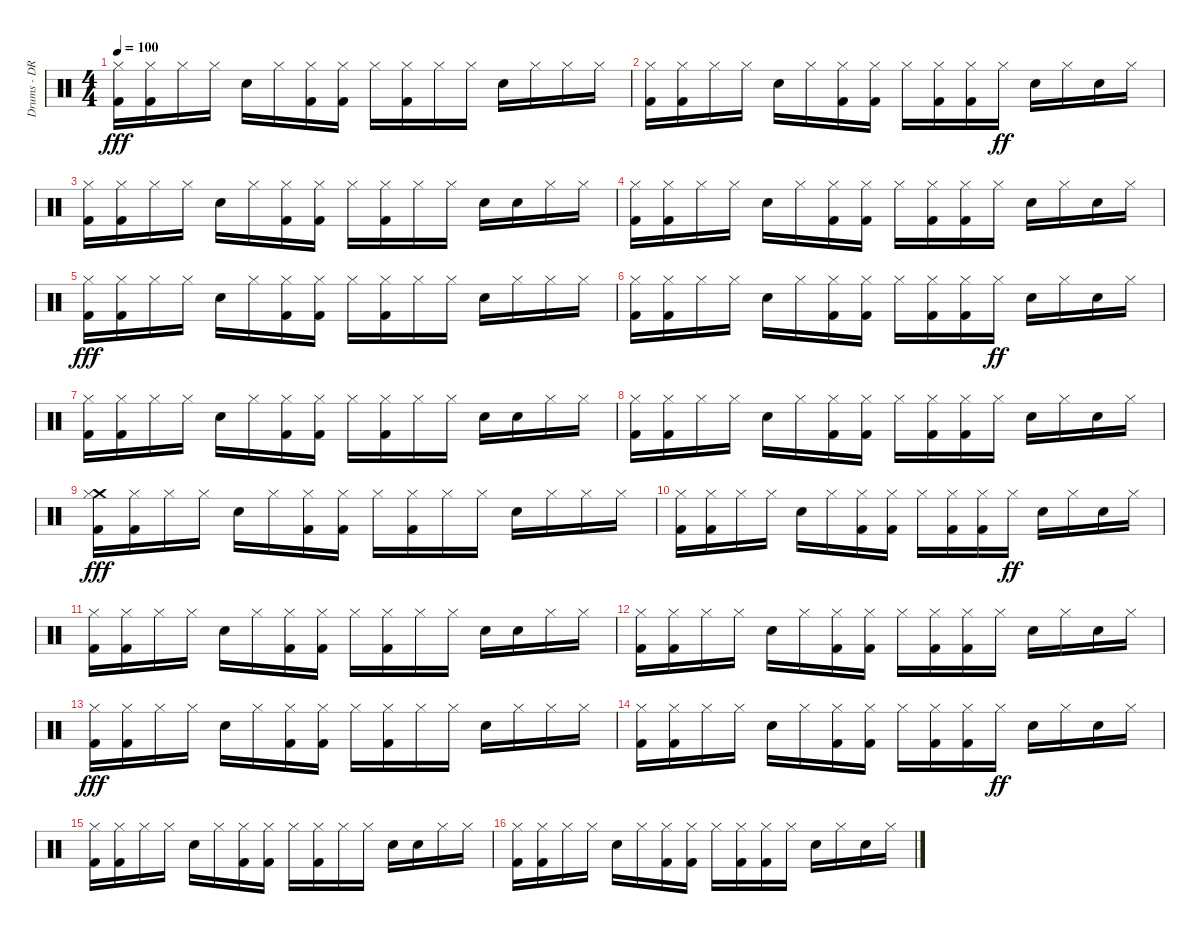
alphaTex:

\track ("Drums - DR-660 Standard" "Drums - DR") {instrument percussion}
\staff {score}
\articulation defaults
\ts (4 4)
\tempo 100
\clef neutral
\ks c
("Kick (hit) 2" "Hi-Hat (closed)").16{dy fff} ("Kick (hit) 2" "Hi-Hat (closed)").16 "Hi-Hat (closed)".16 "Hi-Hat (closed)".16 "Snare (hit) 2".16 "Hi-Hat (closed)".16 ("Kick (hit) 2" "Hi-Hat (closed)").16 ("Kick (hit) 2" "Hi-Hat (closed)").16 "Hi-Hat (closed)".16 ("Kick (hit) 2" "Hi-Hat (closed)").16 "Hi-Hat (closed)".16 "Hi-Hat (closed)".16 "Snare (hit) 2".16 "Hi-Hat (closed)".16 "Hi-Hat (closed)".16 "Hi-Hat (closed)".16 |
("Kick (hit) 2" "Hi-Hat (closed)").16 ("Kick (hit) 2" "Hi-Hat (closed)").16 "Hi-Hat (closed)".16 "Hi-Hat (closed)".16 "Snare (hit) 2".16 "Hi-Hat (closed)".16 ("Kick (hit) 2" "Hi-Hat (closed)").16 ("Kick (hit) 2" "Hi-Hat (closed)").16 "Hi-Hat (closed)".16 ("Kick (hit) 2" "Hi-Hat (closed)").16 ("Kick (hit) 2" "Hi-Hat (closed)").16 "Hi-Hat (closed)".16{dy ff} "Snare (hit) 2".16 "Hi-Hat (closed)".16 "Snare (hit) 2".16 "Hi-Hat (closed)".16 |
("Kick (hit) 2" "Hi-Hat (closed)").16 ("Kick (hit) 2" "Hi-Hat (closed)").16 "Hi-Hat (closed)".16 "Hi-Hat (closed)".16 "Snare (hit) 2".16 "Hi-Hat (closed)".16 ("Kick (hit) 2" "Hi-Hat (closed)").16 ("Kick (hit) 2" "Hi-Hat (closed)").16 "Hi-Hat (closed)".16 ("Kick (hit) 2" "Hi-Hat (closed)").16 "Hi-Hat (closed)".16 "Hi-Hat (closed)".16 "Snare (hit) 2".16 "Snare (hit) 2".16 "Hi-Hat (closed)".16 "Hi-Hat (closed)".16 |
("Kick (hit) 2" "Hi-Hat (closed)").16 ("Kick (hit) 2" "Hi-Hat (closed)").16 "Hi-Hat (closed)".16 "Hi-Hat (closed)".16 "Snare (hit) 2".16 "Hi-Hat (closed)".16 ("Kick (hit) 2" "Hi-Hat (closed)").16 ("Kick (hit) 2" "Hi-Hat (closed)").16 "Hi-Hat (closed)".16 ("Kick (hit) 2" "Hi-Hat (closed)").16 ("Kick (hit) 2" "Hi-Hat (closed)").16 "Hi-Hat (closed)".16 "Snare (hit) 2".16 "Hi-Hat (closed)".16 "Snare (hit) 2".16 "Hi-Hat (closed)".16 |
("Hi-Hat (closed)" "Kick (hit) 2").16{dy fff} ("Hi-Hat (closed)" "Kick (hit) 2").16 "Hi-Hat (closed)".16 "Hi-Hat (closed)".16 "Snare (hit) 2".16 "Hi-Hat (closed)".16 ("Hi-Hat (closed)" "Kick (hit) 2").16 ("Hi-Hat (closed)" "Kick (hit) 2").16 "Hi-Hat (closed)".16 ("Hi-Hat (closed)" "Kick (hit) 2").16 "Hi-Hat (closed)".16 "Hi-Hat (closed)".16 "Snare (hit) 2".16 "Hi-Hat (closed)".16 "Hi-Hat (closed)".16 "Hi-Hat (closed)".16 |
("Hi-Hat (closed)" "Kick (hit) 2").16 ("Hi-Hat (closed)" "Kick (hit) 2").16 "Hi-Hat (closed)".16 "Hi-Hat (closed)".16 "Snare (hit) 2".16 "Hi-Hat (closed)".16 ("Hi-Hat (closed)" "Kick (hit) 2").16 ("Hi-Hat (closed)" "Kick (hit) 2").16 "Hi-Hat (closed)".16 ("Hi-Hat (closed)" "Kick (hit) 2").16 ("Hi-Hat (closed)" "Kick (hit) 2").16 "Hi-Hat (closed)".16{dy ff} "Snare (hit) 2".16 "Hi-Hat (closed)".16 "Snare (hit) 2".16 "Hi-Hat (closed)".16 |
("Hi-Hat (closed)" "Kick (hit) 2").16 ("Hi-Hat (closed)" "Kick (hit) 2").16 "Hi-Hat (closed)".16 "Hi-Hat (closed)".16 "Snare (hit) 2".16 "Hi-Hat (closed)".16 ("Hi-Hat (closed)" "Kick (hit) 2").16 ("Hi-Hat (closed)" "Kick (hit) 2").16 "Hi-Hat (closed)".16 ("Hi-Hat (closed)" "Kick (hit) 2").16 "Hi-Hat (closed)".16 "Hi-Hat (closed)".16 "Snare (hit) 2".16 "Snare (hit) 2".16 "Hi-Hat (closed)".16 "Hi-Hat (closed)".16 |
("Hi-Hat (closed)" "Kick (hit) 2").16 ("Hi-Hat (closed)" "Kick (hit) 2").16 "Hi-Hat (closed)".16 "Hi-Hat (closed)".16 "Snare (hit) 2".16 "Hi-Hat (closed)".16 ("Hi-Hat (closed)" "Kick (hit) 2").16 ("Hi-Hat (closed)" "Kick (hit) 2").16 "Hi-Hat (closed)".16 ("Hi-Hat (closed)" "Kick (hit) 2").16 ("Hi-Hat (closed)" "Kick (hit) 2").16 "Hi-Hat (closed)".16 "Snare (hit) 2".16 "Hi-Hat (closed)".16 "Snare (hit) 2".16 "Hi-Hat (closed)".16 |
("Crash medium (hit)" "Kick (hit) 2" "Hi-Hat (closed)").16{dy fff} ("Kick (hit) 2" "Hi-Hat (closed)").16 "Hi-Hat (closed)".16 "Hi-Hat (closed)".16 "Snare (hit) 2".16 "Hi-Hat (closed)".16 ("Kick (hit) 2" "Hi-Hat (closed)").16 ("Kick (hit) 2" "Hi-Hat (closed)").16 "Hi-Hat (closed)".16 ("Kick (hit) 2" "Hi-Hat (closed)").16 "Hi-Hat (closed)".16 "Hi-Hat (closed)".16 "Snare (hit) 2".16 "Hi-Hat (closed)".16 "Hi-Hat (closed)".16 "Hi-Hat (closed)".16 |
("Kick (hit) 2" "Hi-Hat (closed)").16 ("Kick (hit) 2" "Hi-Hat (closed)").16 "Hi-Hat (closed)".16 "Hi-Hat (closed)".16 "Snare (hit) 2".16 "Hi-Hat (closed)".16 ("Kick (hit) 2" "Hi-Hat (closed)").16 ("Kick (hit) 2" "Hi-Hat (closed)").16 "Hi-Hat (closed)".16 ("Kick (hit) 2" "Hi-Hat (closed)").16 ("Kick (hit) 2" "Hi-Hat (closed)").16 "Hi-Hat (closed)".16{dy ff} "Snare (hit) 2".16 "Hi-Hat (closed)".16 "Snare (hit) 2".16 "Hi-Hat (closed)".16 |
("Kick (hit) 2" "Hi-Hat (closed)").16 ("Kick (hit) 2" "Hi-Hat (closed)").16 "Hi-Hat (closed)".16 "Hi-Hat (closed)".16 "Snare (hit) 2".16 "Hi-Hat (closed)".16 ("Kick (hit) 2" "Hi-Hat (closed)").16 ("Kick (hit) 2" "Hi-Hat (closed)").16 "Hi-Hat (closed)".16 ("Kick (hit) 2" "Hi-Hat (closed)").16 "Hi-Hat (closed)".16 "Hi-Hat (closed)".16 "Snare (hit) 2".16 "Snare (hit) 2".16 "Hi-Hat (closed)".16 "Hi-Hat (closed)".16 |
("Kick (hit) 2" "Hi-Hat (closed)").16 ("Kick (hit) 2" "Hi-Hat (closed)").16 "Hi-Hat (closed)".16 "Hi-Hat (closed)".16 "Snare (hit) 2".16 "Hi-Hat (closed)".16 ("Kick (hit) 2" "Hi-Hat (closed)").16 ("Kick (hit) 2" "Hi-Hat (closed)").16 "Hi-Hat (closed)".16 ("Kick (hit) 2" "Hi-Hat (closed)").16 ("Kick (hit) 2" "Hi-Hat (closed)").16 "Hi-Hat (closed)".16 "Snare (hit) 2".16 "Hi-Hat (closed)".16 "Snare (hit) 2".16 "Hi-Hat (closed)".16 |
("Kick (hit) 2" "Hi-Hat (closed)").16{dy fff} ("Kick (hit) 2" "Hi-Hat (closed)").16 "Hi-Hat (closed)".16 "Hi-Hat (closed)".16 "Snare (hit) 2".16 "Hi-Hat (closed)".16 ("Kick (hit) 2" "Hi-Hat (closed)").16 ("Kick (hit) 2" "Hi-Hat (closed)").16 "Hi-Hat (closed)".16 ("Kick (hit) 2" "Hi-Hat (closed)").16 "Hi-Hat (closed)".16 "Hi-Hat (closed)".16 "Snare (hit) 2".16 "Hi-Hat (closed)".16 "Hi-Hat (closed)".16 "Hi-Hat (closed)".16 |
("Kick (hit) 2" "Hi-Hat (closed)").16 ("Kick (hit) 2" "Hi-Hat (closed)").16 "Hi-Hat (closed)".16 "Hi-Hat (closed)".16 "Snare (hit) 2".16 "Hi-Hat (closed)".16 ("Kick (hit) 2" "Hi-Hat (closed)").16 ("Kick (hit) 2" "Hi-Hat (closed)").16 "Hi-Hat (closed)".16 ("Kick (hit) 2" "Hi-Hat (closed)").16 ("Kick (hit) 2" "Hi-Hat (closed)").16 "Hi-Hat (closed)".16{dy ff} "Snare (hit) 2".16 "Hi-Hat (closed)".16 "Snare (hit) 2".16 "Hi-Hat (closed)".16 |
("Kick (hit) 2" "Hi-Hat (closed)").16 ("Kick (hit) 2" "Hi-Hat (closed)").16 "Hi-Hat (closed)".16 "Hi-Hat (closed)".16 "Snare (hit) 2".16 "Hi-Hat (closed)".16 ("Kick (hit) 2" "Hi-Hat (closed)").16 ("Kick (hit) 2" "Hi-Hat (closed)").16 "Hi-Hat (closed)".16 ("Kick (hit) 2" "Hi-Hat (closed)").16 "Hi-Hat (closed)".16 "Hi-Hat (closed)".16 "Snare (hit) 2".16 "Snare (hit) 2".16 "Hi-Hat (closed)".16 "Hi-Hat (closed)".16 |
("Kick (hit) 2" "Hi-Hat (closed)").16 ("Kick (hit) 2" "Hi-Hat (closed)").16 "Hi-Hat (closed)".16 "Hi-Hat (closed)".16 "Snare (hit) 2".16 "Hi-Hat (closed)".16 ("Kick (hit) 2" "Hi-Hat (closed)").16 ("Kick (hit) 2" "Hi-Hat (closed)").16 "Hi-Hat (closed)".16 ("Kick (hit) 2" "Hi-Hat (closed)").16 ("Kick (hit) 2" "Hi-Hat (closed)").16 "Hi-Hat (closed)".16 "Snare (hit) 2".16 "Hi-Hat (closed)".16 "Snare (hit) 2".16 "Hi-Hat (closed)".16
